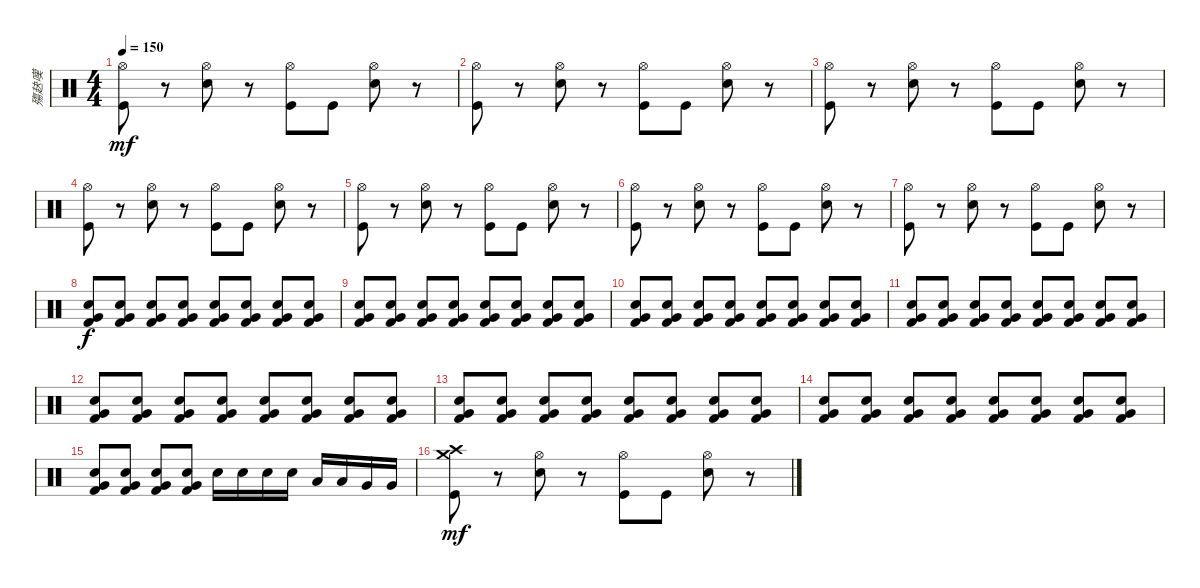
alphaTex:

\track ("殤赽嘆" "殤赽嘆") {instrument percussion}
\staff {score}
\articulation defaults
\ts (4 4)
\tempo 150
\clef neutral
\ks c
("Hi-Hat (open)" "Kick (hit)").8{dy mf} r.8 ("Hi-Hat (open)" "Snare (hit) 2").8 r.8 ("Hi-Hat (open)" "Kick (hit)").8 "Kick (hit)".8 ("Hi-Hat (open)" "Snare (hit) 2").8 r.8 |
("Hi-Hat (open)" "Kick (hit)").8 r.8 ("Hi-Hat (open)" "Snare (hit) 2").8 r.8 ("Hi-Hat (open)" "Kick (hit)").8 "Kick (hit)".8 ("Hi-Hat (open)" "Snare (hit) 2").8 r.8 |
("Hi-Hat (open)" "Kick (hit)").8 r.8 ("Hi-Hat (open)" "Snare (hit) 2").8 r.8 ("Hi-Hat (open)" "Kick (hit)").8 "Kick (hit)".8 ("Hi-Hat (open)" "Snare (hit) 2").8 r.8 |
("Hi-Hat (open)" "Kick (hit)").8 r.8 ("Hi-Hat (open)" "Snare (hit) 2").8 r.8 ("Hi-Hat (open)" "Kick (hit)").8 "Kick (hit)".8 ("Hi-Hat (open)" "Snare (hit) 2").8 r.8 |
("Hi-Hat (open)" "Kick (hit)").8 r.8 ("Hi-Hat (open)" "Snare (hit) 2").8 r.8 ("Hi-Hat (open)" "Kick (hit)").8 "Kick (hit)".8 ("Hi-Hat (open)" "Snare (hit) 2").8 r.8 |
("Hi-Hat (open)" "Kick (hit)").8 r.8 ("Hi-Hat (open)" "Snare (hit) 2").8 r.8 ("Hi-Hat (open)" "Kick (hit)").8 "Kick (hit)".8 ("Hi-Hat (open)" "Snare (hit) 2").8 r.8 |
("Hi-Hat (open)" "Kick (hit)").8 r.8 ("Hi-Hat (open)" "Snare (hit) 2").8 r.8 ("Hi-Hat (open)" "Kick (hit)").8 "Kick (hit)".8 ("Hi-Hat (open)" "Snare (hit) 2").8 r.8 |
("Electric Snare (hit)" "Very Low Tom (hit)" "Kick (hit) 2").8{dy f} ("Electric Snare (hit)" "Very Low Tom (hit)" "Kick (hit) 2").8 ("Electric Snare (hit)" "Very Low Tom (hit)" "Kick (hit) 2").8 ("Electric Snare (hit)" "Very Low Tom (hit)" "Kick (hit) 2").8 ("Electric Snare (hit)" "Very Low Tom (hit)" "Kick (hit) 2").8 ("Electric Snare (hit)" "Very Low Tom (hit)" "Kick (hit) 2").8 ("Electric Snare (hit)" "Very Low Tom (hit)" "Kick (hit) 2").8 ("Electric Snare (hit)" "Very Low Tom (hit)" "Kick (hit) 2").8 |
("Electric Snare (hit)" "Very Low Tom (hit)" "Kick (hit) 2").8 ("Electric Snare (hit)" "Very Low Tom (hit)" "Kick (hit) 2").8 ("Electric Snare (hit)" "Very Low Tom (hit)" "Kick (hit) 2").8 ("Electric Snare (hit)" "Very Low Tom (hit)" "Kick (hit) 2").8 ("Electric Snare (hit)" "Very Low Tom (hit)" "Kick (hit) 2").8 ("Electric Snare (hit)" "Very Low Tom (hit)" "Kick (hit) 2").8 ("Electric Snare (hit)" "Very Low Tom (hit)" "Kick (hit) 2").8 ("Electric Snare (hit)" "Very Low Tom (hit)" "Kick (hit) 2").8 |
("Electric Snare (hit)" "Very Low Tom (hit)" "Kick (hit) 2").8 ("Electric Snare (hit)" "Very Low Tom (hit)" "Kick (hit) 2").8 ("Electric Snare (hit)" "Very Low Tom (hit)" "Kick (hit) 2").8 ("Electric Snare (hit)" "Very Low Tom (hit)" "Kick (hit) 2").8 ("Electric Snare (hit)" "Very Low Tom (hit)" "Kick (hit) 2").8 ("Electric Snare (hit)" "Very Low Tom (hit)" "Kick (hit) 2").8 ("Electric Snare (hit)" "Very Low Tom (hit)" "Kick (hit) 2").8 ("Electric Snare (hit)" "Very Low Tom (hit)" "Kick (hit) 2").8 |
("Electric Snare (hit)" "Very Low Tom (hit)" "Kick (hit) 2").8 ("Electric Snare (hit)" "Very Low Tom (hit)" "Kick (hit) 2").8 ("Electric Snare (hit)" "Very Low Tom (hit)" "Kick (hit) 2").8 ("Electric Snare (hit)" "Very Low Tom (hit)" "Kick (hit) 2").8 ("Electric Snare (hit)" "Very Low Tom (hit)" "Kick (hit) 2").8 ("Electric Snare (hit)" "Very Low Tom (hit)" "Kick (hit) 2").8 ("Electric Snare (hit)" "Very Low Tom (hit)" "Kick (hit) 2").8 ("Electric Snare (hit)" "Very Low Tom (hit)" "Kick (hit) 2").8 |
("Electric Snare (hit)" "Very Low Tom (hit)" "Kick (hit) 2").8 ("Electric Snare (hit)" "Very Low Tom (hit)" "Kick (hit) 2").8 ("Electric Snare (hit)" "Very Low Tom (hit)" "Kick (hit) 2").8 ("Electric Snare (hit)" "Very Low Tom (hit)" "Kick (hit) 2").8 ("Electric Snare (hit)" "Very Low Tom (hit)" "Kick (hit) 2").8 ("Electric Snare (hit)" "Very Low Tom (hit)" "Kick (hit) 2").8 ("Electric Snare (hit)" "Very Low Tom (hit)" "Kick (hit) 2").8 ("Electric Snare (hit)" "Very Low Tom (hit)" "Kick (hit) 2").8 |
("Electric Snare (hit)" "Very Low Tom (hit)" "Kick (hit) 2").8 ("Electric Snare (hit)" "Very Low Tom (hit)" "Kick (hit) 2").8 ("Electric Snare (hit)" "Very Low Tom (hit)" "Kick (hit) 2").8 ("Electric Snare (hit)" "Very Low Tom (hit)" "Kick (hit) 2").8 ("Electric Snare (hit)" "Very Low Tom (hit)" "Kick (hit) 2").8 ("Electric Snare (hit)" "Very Low Tom (hit)" "Kick (hit) 2").8 ("Electric Snare (hit)" "Very Low Tom (hit)" "Kick (hit) 2").8 ("Electric Snare (hit)" "Very Low Tom (hit)" "Kick (hit) 2").8 |
("Electric Snare (hit)" "Very Low Tom (hit)" "Kick (hit) 2").8 ("Electric Snare (hit)" "Very Low Tom (hit)" "Kick (hit) 2").8 ("Electric Snare (hit)" "Very Low Tom (hit)" "Kick (hit) 2").8 ("Electric Snare (hit)" "Very Low Tom (hit)" "Kick (hit) 2").8 ("Electric Snare (hit)" "Very Low Tom (hit)" "Kick (hit) 2").8 ("Electric Snare (hit)" "Very Low Tom (hit)" "Kick (hit) 2").8 ("Electric Snare (hit)" "Very Low Tom (hit)" "Kick (hit) 2").8 ("Electric Snare (hit)" "Very Low Tom (hit)" "Kick (hit) 2").8 |
("Electric Snare (hit)" "Very Low Tom (hit)" "Kick (hit) 2").8 ("Electric Snare (hit)" "Very Low Tom (hit)" "Kick (hit) 2").8 ("Electric Snare (hit)" "Very Low Tom (hit)" "Kick (hit) 2").8 ("Electric Snare (hit)" "Very Low Tom (hit)" "Kick (hit) 2").8 "Electric Snare (hit)".16 "Electric Snare (hit)".16 "Electric Snare (hit)".16 "Electric Snare (hit)".16 "Low Tom (hit)".16 "Low Tom (hit)".16 "Very Low Tom (hit)".16 "Very Low Tom (hit)".16 |
("Crash high (hit)" "Crash medium (hit)" "Kick (hit)").8{dy mf} r.8 ("Hi-Hat (open)" "Snare (hit) 2").8 r.8 ("Hi-Hat (open)" "Kick (hit)").8 "Kick (hit)".8 ("Hi-Hat (open)" "Snare (hit) 2").8 r.8
